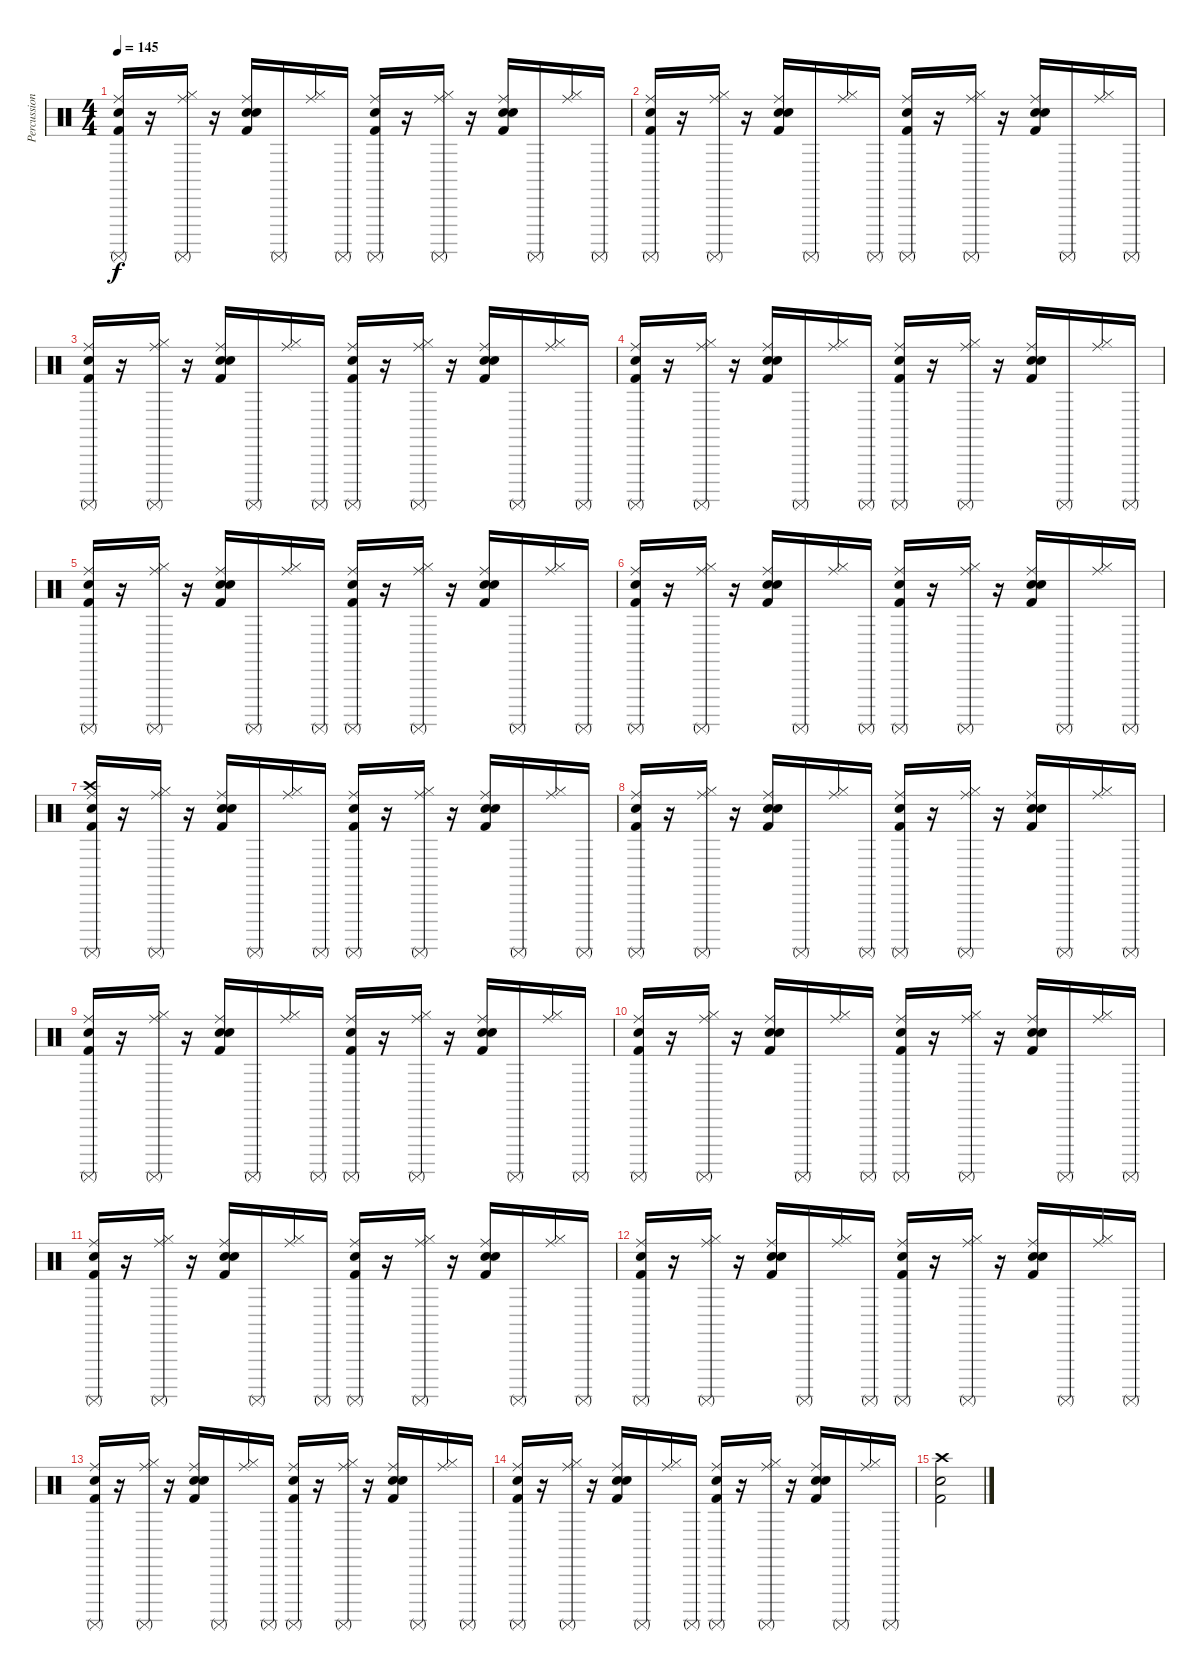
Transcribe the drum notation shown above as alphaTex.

\track ("Percussions" "Percussion") {instrument percussion}
\staff {score}
\articulation defaults
\ts (4 4)
\tempo 145
\clef neutral
\ks c
("Kick (hit) 2" "Snare (hit) 2" "Surdo (mute)" "Ride (middle)").16{dy f} r.16 ("Hi-Hat (closed)" "Surdo (mute)" "Ride (middle)").16 r.16 ("Kick (hit) 2" "Snare (hit) 2" "Hand Clap (hit)" "Ride (middle)").16 "Surdo (mute)".16 ("Hi-Hat (closed)" "Ride (middle)").16 "Surdo (mute)".16 ("Kick (hit) 2" "Snare (hit) 2" "Surdo (mute)" "Ride (middle)").16 r.16 ("Hi-Hat (closed)" "Surdo (mute)" "Ride (middle)").16 r.16 ("Kick (hit) 2" "Snare (hit) 2" "Hand Clap (hit)" "Ride (middle)").16 "Surdo (mute)".16 ("Hi-Hat (closed)" "Ride (middle)").16 "Surdo (mute)".16 |
("Kick (hit) 2" "Snare (hit) 2" "Surdo (mute)" "Ride (middle)").16 r.16 ("Hi-Hat (closed)" "Surdo (mute)" "Ride (middle)").16 r.16 ("Kick (hit) 2" "Snare (hit) 2" "Hand Clap (hit)" "Ride (middle)").16 "Surdo (mute)".16 ("Hi-Hat (closed)" "Ride (middle)").16 "Surdo (mute)".16 ("Kick (hit) 2" "Snare (hit) 2" "Surdo (mute)" "Ride (middle)").16 r.16 ("Hi-Hat (closed)" "Surdo (mute)" "Ride (middle)").16 r.16 ("Kick (hit) 2" "Snare (hit) 2" "Hand Clap (hit)" "Ride (middle)").16 "Surdo (mute)".16 ("Hi-Hat (closed)" "Ride (middle)").16 "Surdo (mute)".16 |
("Kick (hit) 2" "Snare (hit) 2" "Surdo (mute)" "Ride (middle)").16 r.16 ("Hi-Hat (closed)" "Surdo (mute)" "Ride (middle)").16 r.16 ("Kick (hit) 2" "Snare (hit) 2" "Hand Clap (hit)" "Ride (middle)").16 "Surdo (mute)".16 ("Hi-Hat (closed)" "Ride (middle)").16 "Surdo (mute)".16 ("Kick (hit) 2" "Snare (hit) 2" "Surdo (mute)" "Ride (middle)").16 r.16 ("Hi-Hat (closed)" "Surdo (mute)" "Ride (middle)").16 r.16 ("Kick (hit) 2" "Snare (hit) 2" "Hand Clap (hit)" "Ride (middle)").16 "Surdo (mute)".16 ("Hi-Hat (closed)" "Ride (middle)").16 "Surdo (mute)".16 |
("Kick (hit) 2" "Snare (hit) 2" "Surdo (mute)" "Ride (middle)").16 r.16 ("Hi-Hat (closed)" "Surdo (mute)" "Ride (middle)").16 r.16 ("Kick (hit) 2" "Snare (hit) 2" "Hand Clap (hit)" "Ride (middle)").16 "Surdo (mute)".16 ("Hi-Hat (closed)" "Ride (middle)").16 "Surdo (mute)".16 ("Kick (hit) 2" "Snare (hit) 2" "Surdo (mute)" "Ride (middle)").16 r.16 ("Hi-Hat (closed)" "Surdo (mute)" "Ride (middle)").16 r.16 ("Kick (hit) 2" "Snare (hit) 2" "Hand Clap (hit)" "Ride (middle)").16 "Surdo (mute)".16 ("Hi-Hat (closed)" "Ride (middle)").16 "Surdo (mute)".16 |
("Kick (hit) 2" "Snare (hit) 2" "Surdo (mute)" "Ride (middle)").16 r.16 ("Hi-Hat (closed)" "Surdo (mute)" "Ride (middle)").16 r.16 ("Kick (hit) 2" "Snare (hit) 2" "Hand Clap (hit)" "Ride (middle)").16 "Surdo (mute)".16 ("Hi-Hat (closed)" "Ride (middle)").16 "Surdo (mute)".16 ("Kick (hit) 2" "Snare (hit) 2" "Surdo (mute)" "Ride (middle)").16 r.16 ("Hi-Hat (closed)" "Surdo (mute)" "Ride (middle)").16 r.16 ("Kick (hit) 2" "Snare (hit) 2" "Hand Clap (hit)" "Ride (middle)").16 "Surdo (mute)".16 ("Hi-Hat (closed)" "Ride (middle)").16 "Surdo (mute)".16 |
("Kick (hit) 2" "Snare (hit) 2" "Surdo (mute)" "Ride (middle)").16 r.16 ("Hi-Hat (closed)" "Surdo (mute)" "Ride (middle)").16 r.16 ("Kick (hit) 2" "Snare (hit) 2" "Hand Clap (hit)" "Ride (middle)").16 "Surdo (mute)".16 ("Hi-Hat (closed)" "Ride (middle)").16 "Surdo (mute)".16 ("Kick (hit) 2" "Snare (hit) 2" "Surdo (mute)" "Ride (middle)").16 r.16 ("Hi-Hat (closed)" "Surdo (mute)" "Ride (middle)").16 r.16 ("Kick (hit) 2" "Snare (hit) 2" "Hand Clap (hit)" "Ride (middle)").16 "Surdo (mute)".16 ("Hi-Hat (closed)" "Ride (middle)").16 "Surdo (mute)".16 |
("Kick (hit) 2" "Snare (hit) 2" "Surdo (mute)" "Crash high (hit)" "Ride (middle)").16 r.16 ("Hi-Hat (closed)" "Surdo (mute)" "Ride (middle)").16 r.16 ("Kick (hit) 2" "Electric Snare (hit)" "Hand Clap (hit)" "Ride (middle)").16 "Surdo (mute)".16 ("Hi-Hat (closed)" "Ride (middle)").16 "Surdo (mute)".16 ("Kick (hit) 2" "Snare (hit) 2" "Surdo (mute)" "Ride (middle)").16 r.16 ("Hi-Hat (closed)" "Surdo (mute)" "Ride (middle)").16 r.16 ("Kick (hit) 2" "Electric Snare (hit)" "Hand Clap (hit)" "Ride (middle)").16 "Surdo (mute)".16 ("Hi-Hat (closed)" "Ride (middle)").16 "Surdo (mute)".16 |
("Kick (hit) 2" "Snare (hit) 2" "Surdo (mute)" "Ride (middle)").16 r.16 ("Hi-Hat (closed)" "Surdo (mute)" "Ride (middle)").16 r.16 ("Kick (hit) 2" "Electric Snare (hit)" "Hand Clap (hit)" "Ride (middle)").16 "Surdo (mute)".16 ("Hi-Hat (closed)" "Ride (middle)").16 "Surdo (mute)".16 ("Kick (hit) 2" "Snare (hit) 2" "Surdo (mute)" "Ride (middle)").16 r.16 ("Hi-Hat (closed)" "Surdo (mute)" "Ride (middle)").16 r.16 ("Kick (hit) 2" "Electric Snare (hit)" "Hand Clap (hit)" "Ride (middle)").16 "Surdo (mute)".16 ("Hi-Hat (closed)" "Ride (middle)").16 "Surdo (mute)".16 |
("Kick (hit) 2" "Snare (hit) 2" "Surdo (mute)" "Ride (middle)").16 r.16 ("Hi-Hat (closed)" "Surdo (mute)" "Ride (middle)").16 r.16 ("Kick (hit) 2" "Electric Snare (hit)" "Hand Clap (hit)" "Ride (middle)").16 "Surdo (mute)".16 ("Hi-Hat (closed)" "Ride (middle)").16 "Surdo (mute)".16 ("Kick (hit) 2" "Snare (hit) 2" "Surdo (mute)" "Ride (middle)").16 r.16 ("Hi-Hat (closed)" "Surdo (mute)" "Ride (middle)").16 r.16 ("Kick (hit) 2" "Electric Snare (hit)" "Hand Clap (hit)" "Ride (middle)").16 "Surdo (mute)".16 ("Hi-Hat (closed)" "Ride (middle)").16 "Surdo (mute)".16 |
("Kick (hit) 2" "Snare (hit) 2" "Surdo (mute)" "Ride (middle)").16 r.16 ("Hi-Hat (closed)" "Surdo (mute)" "Ride (middle)").16 r.16 ("Kick (hit) 2" "Electric Snare (hit)" "Hand Clap (hit)" "Ride (middle)").16 "Surdo (mute)".16 ("Hi-Hat (closed)" "Ride (middle)").16 "Surdo (mute)".16 ("Kick (hit) 2" "Snare (hit) 2" "Surdo (mute)" "Ride (middle)").16 r.16 ("Hi-Hat (closed)" "Surdo (mute)" "Ride (middle)").16 r.16 ("Kick (hit) 2" "Electric Snare (hit)" "Hand Clap (hit)" "Ride (middle)").16 "Surdo (mute)".16 ("Hi-Hat (closed)" "Ride (middle)").16 "Surdo (mute)".16 |
("Kick (hit) 2" "Snare (hit) 2" "Surdo (mute)" "Ride (middle)").16 r.16 ("Hi-Hat (closed)" "Surdo (mute)" "Ride (middle)").16 r.16 ("Kick (hit) 2" "Electric Snare (hit)" "Hand Clap (hit)" "Ride (middle)").16 "Surdo (mute)".16 ("Hi-Hat (closed)" "Ride (middle)").16 "Surdo (mute)".16 ("Kick (hit) 2" "Snare (hit) 2" "Surdo (mute)" "Ride (middle)").16 r.16 ("Hi-Hat (closed)" "Surdo (mute)" "Ride (middle)").16 r.16 ("Kick (hit) 2" "Electric Snare (hit)" "Hand Clap (hit)" "Ride (middle)").16 "Surdo (mute)".16 ("Hi-Hat (closed)" "Ride (middle)").16 "Surdo (mute)".16 |
("Kick (hit) 2" "Snare (hit) 2" "Surdo (mute)" "Ride (middle)").16 r.16 ("Hi-Hat (closed)" "Surdo (mute)" "Ride (middle)").16 r.16 ("Kick (hit) 2" "Electric Snare (hit)" "Hand Clap (hit)" "Ride (middle)").16 "Surdo (mute)".16 ("Hi-Hat (closed)" "Ride (middle)").16 "Surdo (mute)".16 ("Kick (hit) 2" "Snare (hit) 2" "Surdo (mute)" "Ride (middle)").16 r.16 ("Hi-Hat (closed)" "Surdo (mute)" "Ride (middle)").16 r.16 ("Kick (hit) 2" "Electric Snare (hit)" "Hand Clap (hit)" "Ride (middle)").16 "Surdo (mute)".16 ("Hi-Hat (closed)" "Ride (middle)").16 "Surdo (mute)".16 |
("Kick (hit) 2" "Snare (hit) 2" "Surdo (mute)" "Ride (middle)").16 r.16 ("Hi-Hat (closed)" "Surdo (mute)" "Ride (middle)").16 r.16 ("Kick (hit) 2" "Electric Snare (hit)" "Hand Clap (hit)" "Ride (middle)").16 "Surdo (mute)".16 ("Hi-Hat (closed)" "Ride (middle)").16 "Surdo (mute)".16 ("Kick (hit) 2" "Snare (hit) 2" "Surdo (mute)" "Ride (middle)").16 r.16 ("Hi-Hat (closed)" "Surdo (mute)" "Ride (middle)").16 r.16 ("Kick (hit) 2" "Electric Snare (hit)" "Hand Clap (hit)" "Ride (middle)").16 "Surdo (mute)".16 ("Hi-Hat (closed)" "Ride (middle)").16 "Surdo (mute)".16 |
("Kick (hit) 2" "Snare (hit) 2" "Surdo (mute)" "Ride (middle)").16 r.16 ("Hi-Hat (closed)" "Surdo (mute)" "Ride (middle)").16 r.16 ("Kick (hit) 2" "Electric Snare (hit)" "Hand Clap (hit)" "Ride (middle)").16 "Surdo (mute)".16 ("Hi-Hat (closed)" "Ride (middle)").16 "Surdo (mute)".16 ("Kick (hit) 2" "Snare (hit) 2" "Surdo (mute)" "Ride (middle)").16 r.16 ("Hi-Hat (closed)" "Surdo (mute)" "Ride (middle)").16 r.16 ("Kick (hit) 2" "Electric Snare (hit)" "Hand Clap (hit)" "Ride (middle)").16 "Surdo (mute)".16 ("Hi-Hat (closed)" "Ride (middle)").16 "Surdo (mute)".16 |
("Crash high (hit)" "Kick (hit) 2" "Snare (hit) 2").2
